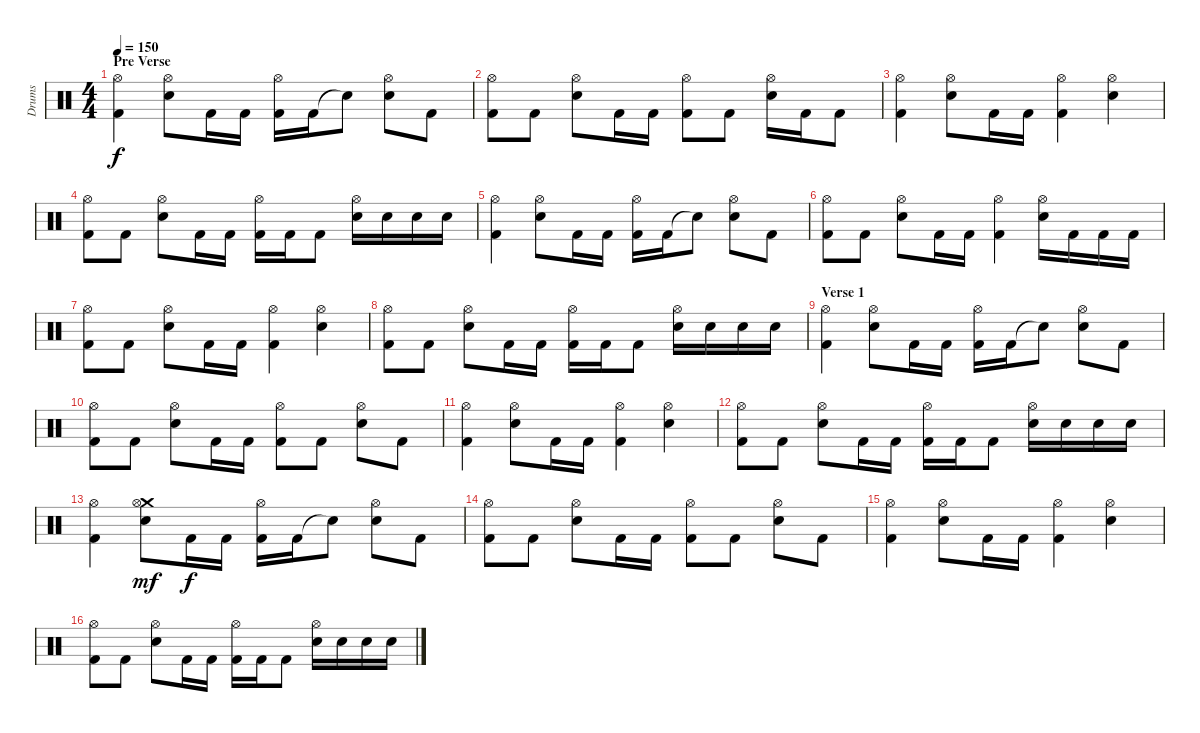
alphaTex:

\track ("Drums" "Drums") {instrument percussion}
\staff {score}
\articulation defaults
\ts (4 4)
\section ("" "Pre Verse")
\tempo 150
\clef neutral
\ks c
("Hi-Hat (open)" "Kick (hit) 2").4{dy f} ("Hi-Hat (open)" "Electric Snare (hit)").8 "Kick (hit) 2".16 "Kick (hit) 2".16 ("Hi-Hat (open)" "Kick (hit) 2").16 "Kick (hit) 2".16 "Snare (hit)"{t}.8 ("Hi-Hat (open)" "Electric Snare (hit)").8 "Kick (hit) 2".8 |
("Hi-Hat (open)" "Kick (hit) 2").8 "Kick (hit) 2".8 ("Hi-Hat (open)" "Electric Snare (hit)").8 "Kick (hit) 2".16 "Kick (hit) 2".16 ("Hi-Hat (open)" "Kick (hit) 2").8 "Kick (hit) 2".8 ("Hi-Hat (open)" "Electric Snare (hit)").16 "Kick (hit) 2".16 "Kick (hit) 2".8 |
("Hi-Hat (open)" "Kick (hit) 2").4 ("Hi-Hat (open)" "Electric Snare (hit)").8 "Kick (hit) 2".16 "Kick (hit) 2".16 ("Hi-Hat (open)" "Kick (hit) 2").4 ("Hi-Hat (open)" "Electric Snare (hit)").4 |
("Hi-Hat (open)" "Kick (hit) 2").8 "Kick (hit) 2".8 ("Hi-Hat (open)" "Electric Snare (hit)").8 "Kick (hit) 2".16 "Kick (hit) 2".16 ("Hi-Hat (open)" "Kick (hit) 2").16 "Kick (hit) 2".16 "Kick (hit) 2".8 ("Hi-Hat (open)" "Electric Snare (hit)").16 "Electric Snare (hit)".16 "Electric Snare (hit)".16 "Electric Snare (hit)".16 |
("Hi-Hat (open)" "Kick (hit) 2").4 ("Hi-Hat (open)" "Electric Snare (hit)").8 "Kick (hit) 2".16 "Kick (hit) 2".16 ("Hi-Hat (open)" "Kick (hit) 2").16 "Kick (hit) 2".16 "Snare (hit)"{t}.8 ("Hi-Hat (open)" "Electric Snare (hit)").8 "Kick (hit) 2".8 |
("Hi-Hat (open)" "Kick (hit) 2").8 "Kick (hit) 2".8 ("Hi-Hat (open)" "Electric Snare (hit)").8 "Kick (hit) 2".16 "Kick (hit) 2".16 ("Hi-Hat (open)" "Kick (hit) 2").4 ("Hi-Hat (open)" "Electric Snare (hit)").16 "Kick (hit) 2".16 "Kick (hit) 2".16 "Kick (hit) 2".16 |
("Hi-Hat (open)" "Kick (hit) 2").8 "Kick (hit) 2".8 ("Hi-Hat (open)" "Electric Snare (hit)").8 "Kick (hit) 2".16 "Kick (hit) 2".16 ("Hi-Hat (open)" "Kick (hit) 2").4 ("Hi-Hat (open)" "Electric Snare (hit)").4 |
("Hi-Hat (open)" "Kick (hit) 2").8 "Kick (hit) 2".8 ("Hi-Hat (open)" "Electric Snare (hit)").8 "Kick (hit) 2".16 "Kick (hit) 2".16 ("Hi-Hat (open)" "Kick (hit) 2").16 "Kick (hit) 2".16 "Kick (hit) 2".8 ("Hi-Hat (open)" "Electric Snare (hit)").16 "Electric Snare (hit)".16 "Electric Snare (hit)".16 "Electric Snare (hit)".16 |
\section ("" "Verse 1")
("Hi-Hat (open)" "Kick (hit) 2").4 ("Hi-Hat (open)" "Electric Snare (hit)").8 "Kick (hit) 2".16 "Kick (hit) 2".16 ("Hi-Hat (open)" "Kick (hit) 2").16 "Kick (hit) 2".16 "Snare (hit)"{t}.8 ("Hi-Hat (open)" "Electric Snare (hit)").8 "Kick (hit) 2".8 |
("Hi-Hat (open)" "Kick (hit) 2").8 "Kick (hit) 2".8 ("Hi-Hat (open)" "Electric Snare (hit)").8 "Kick (hit) 2".16 "Kick (hit) 2".16 ("Hi-Hat (open)" "Kick (hit) 2").8 "Kick (hit) 2".8 ("Hi-Hat (open)" "Electric Snare (hit)").8 "Kick (hit) 2".8 |
("Hi-Hat (open)" "Kick (hit) 2").4 ("Hi-Hat (open)" "Electric Snare (hit)").8 "Kick (hit) 2".16 "Kick (hit) 2".16 ("Hi-Hat (open)" "Kick (hit) 2").4 ("Hi-Hat (open)" "Electric Snare (hit)").4 |
("Hi-Hat (open)" "Kick (hit) 2").8 "Kick (hit) 2".8 ("Hi-Hat (open)" "Electric Snare (hit)").8 "Kick (hit) 2".16 "Kick (hit) 2".16 ("Hi-Hat (open)" "Kick (hit) 2").16 "Kick (hit) 2".16 "Kick (hit) 2".8 ("Hi-Hat (open)" "Electric Snare (hit)").16 "Electric Snare (hit)".16 "Electric Snare (hit)".16 "Electric Snare (hit)".16 |
("Hi-Hat (open)" "Kick (hit) 2").4 ("Crash medium (hit)" "Hi-Hat (open)" "Electric Snare (hit)").8{dy mf} "Kick (hit) 2".16{dy f} "Kick (hit) 2".16 ("Hi-Hat (open)" "Kick (hit) 2").16 "Kick (hit) 2".16 "Snare (hit)"{t}.8 ("Hi-Hat (open)" "Electric Snare (hit)").8 "Kick (hit) 2".8 |
("Hi-Hat (open)" "Kick (hit) 2").8 "Kick (hit) 2".8 ("Hi-Hat (open)" "Electric Snare (hit)").8 "Kick (hit) 2".16 "Kick (hit) 2".16 ("Hi-Hat (open)" "Kick (hit) 2").8 "Kick (hit) 2".8 ("Hi-Hat (open)" "Electric Snare (hit)").8 "Kick (hit) 2".8 |
("Hi-Hat (open)" "Kick (hit) 2").4 ("Hi-Hat (open)" "Electric Snare (hit)").8 "Kick (hit) 2".16 "Kick (hit) 2".16 ("Hi-Hat (open)" "Kick (hit) 2").4 ("Hi-Hat (open)" "Electric Snare (hit)").4 |
("Hi-Hat (open)" "Kick (hit) 2").8 "Kick (hit) 2".8 ("Hi-Hat (open)" "Electric Snare (hit)").8 "Kick (hit) 2".16 "Kick (hit) 2".16 ("Hi-Hat (open)" "Kick (hit) 2").16 "Kick (hit) 2".16 "Kick (hit) 2".8 ("Hi-Hat (open)" "Electric Snare (hit)").16 "Electric Snare (hit)".16 "Electric Snare (hit)".16 "Electric Snare (hit)".16
